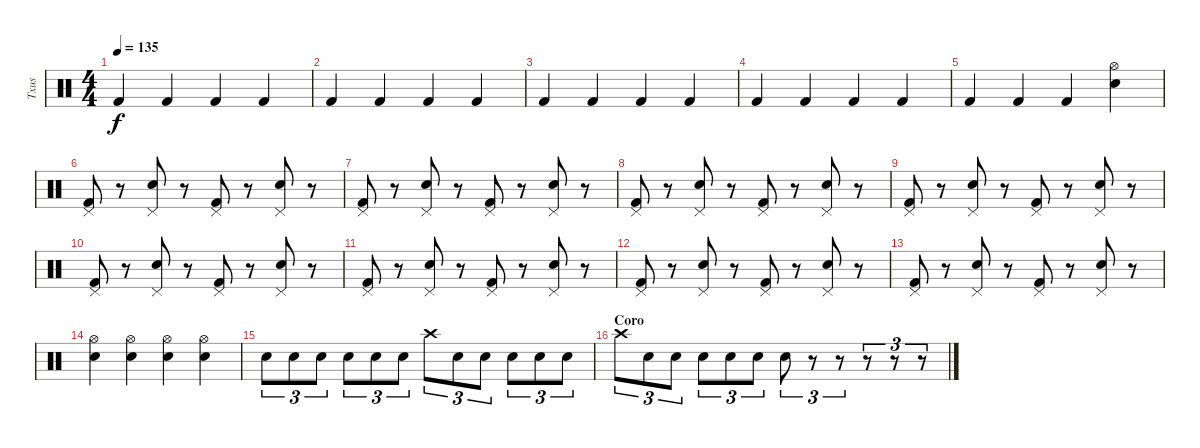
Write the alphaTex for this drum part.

\track ("Txus" "Txus") {instrument percussion}
\staff {score}
\articulation defaults
\ts (4 4)
\tempo 135
\clef neutral
\ks c "Kick (hit) 2".4{dy f} "Kick (hit) 2".4 "Kick (hit) 2".4 "Kick (hit) 2".4
|
"Kick (hit) 2".4 "Kick (hit) 2".4 "Kick (hit) 2".4 "Kick (hit) 2".4 |
"Kick (hit) 2".4 "Kick (hit) 2".4 "Kick (hit) 2".4 "Kick (hit) 2".4 |
"Kick (hit) 2".4 "Kick (hit) 2".4 "Kick (hit) 2".4 "Kick (hit) 2".4 |
"Kick (hit) 2".4 "Kick (hit) 2".4 "Kick (hit) 2".4 ("Snare (hit) 2" "Hi-Hat (open)").4 |
("Pedal Hi-Hat (hit)" "Kick (hit) 2").8 r.8 ("Pedal Hi-Hat (hit)" "Snare (hit) 2").8 r.8 ("Pedal Hi-Hat (hit)" "Kick (hit) 2").8 r.8 ("Pedal Hi-Hat (hit)" "Snare (hit) 2").8 r.8 |
("Pedal Hi-Hat (hit)" "Kick (hit) 2").8 r.8 ("Pedal Hi-Hat (hit)" "Snare (hit) 2").8 r.8 ("Pedal Hi-Hat (hit)" "Kick (hit) 2").8 r.8 ("Pedal Hi-Hat (hit)" "Snare (hit) 2").8 r.8 |
("Pedal Hi-Hat (hit)" "Kick (hit) 2").8 r.8 ("Pedal Hi-Hat (hit)" "Snare (hit) 2").8 r.8 ("Pedal Hi-Hat (hit)" "Kick (hit) 2").8 r.8 ("Pedal Hi-Hat (hit)" "Snare (hit) 2").8 r.8 |
("Pedal Hi-Hat (hit)" "Kick (hit) 2").8 r.8 ("Pedal Hi-Hat (hit)" "Snare (hit) 2").8 r.8 ("Pedal Hi-Hat (hit)" "Kick (hit) 2").8 r.8 ("Pedal Hi-Hat (hit)" "Snare (hit) 2").8 r.8 |
("Pedal Hi-Hat (hit)" "Kick (hit) 2").8 r.8 ("Pedal Hi-Hat (hit)" "Snare (hit) 2").8 r.8 ("Pedal Hi-Hat (hit)" "Kick (hit) 2").8 r.8 ("Pedal Hi-Hat (hit)" "Snare (hit) 2").8 r.8 |
("Pedal Hi-Hat (hit)" "Kick (hit) 2").8 r.8 ("Pedal Hi-Hat (hit)" "Snare (hit) 2").8 r.8 ("Pedal Hi-Hat (hit)" "Kick (hit) 2").8 r.8 ("Pedal Hi-Hat (hit)" "Snare (hit) 2").8 r.8 |
("Pedal Hi-Hat (hit)" "Kick (hit) 2").8 r.8 ("Pedal Hi-Hat (hit)" "Snare (hit) 2").8 r.8 ("Pedal Hi-Hat (hit)" "Kick (hit) 2").8 r.8 ("Pedal Hi-Hat (hit)" "Snare (hit) 2").8 r.8 |
("Pedal Hi-Hat (hit)" "Kick (hit) 2").8 r.8 ("Pedal Hi-Hat (hit)" "Snare (hit) 2").8 r.8 ("Pedal Hi-Hat (hit)" "Kick (hit) 2").8 r.8 ("Pedal Hi-Hat (hit)" "Snare (hit) 2").8 r.8 |
("Hi-Hat (open)" "Snare (hit) 2").4 ("Hi-Hat (open)" "Snare (hit) 2").4 ("Hi-Hat (open)" "Snare (hit) 2").4 ("Hi-Hat (open)" "Snare (hit) 2").4 |
"Snare (hit) 2".8{tu (3 2) volume 7} "Snare (hit) 2".8{tu (3 2)} "Snare (hit) 2".8{tu (3 2)} "Snare (hit) 2".8{tu (3 2)} "Snare (hit) 2".8{tu (3 2)} "Snare (hit) 2".8{tu (3 2)} "Crash high (hit)".8{tu (3 2)} "Snare (hit) 2".8{tu (3 2)} "Snare (hit) 2".8{tu (3 2)} "Snare (hit) 2".8{tu (3 2)} "Snare (hit) 2".8{tu (3 2)} "Snare (hit) 2".8{tu (3 2)} |
\section ("" "Coro")
"Crash high (hit)".8{tu (3 2)} "Snare (hit) 2".8{tu (3 2)} "Snare (hit) 2".8{tu (3 2)} "Snare (hit) 2".8{tu (3 2)} "Snare (hit) 2".8{tu (3 2)} "Snare (hit) 2".8{tu (3 2)} "Snare (hit) 2".8{tu (3 2)} r.8{tu (3 2)} r.8{tu (3 2)} r.8{tu (3 2)} r.8{tu (3 2)} r.8{tu (3 2)}
